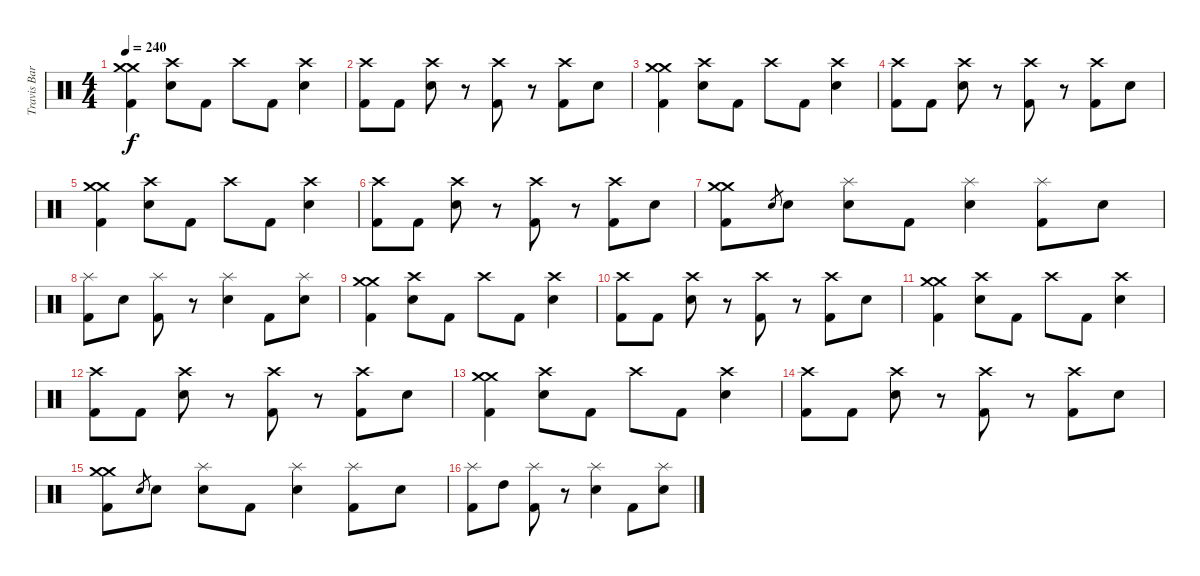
\track ("Travis Barker - Drums" "Travis Bar") {instrument percussion}
\staff {score}
\articulation defaults
\ts (4 4)
\tempo 240
\clef neutral
\ks c
("Crash medium (hit)" "Crash medium (hit)" "Kick (hit) 2").4{dy f} ("Crash high (hit)" "Electric Snare (hit)").8 "Kick (hit) 2".8 "Crash high (hit)".8 "Kick (hit) 2".8 ("Crash high (hit)" "Electric Snare (hit)").4 |
("Crash high (hit)" "Kick (hit) 2").8 "Kick (hit) 2".8 ("Crash high (hit)" "Electric Snare (hit)").8 r.8 ("Crash high (hit)" "Kick (hit) 2").8 r.8 ("Crash high (hit)" "Kick (hit) 2").8 "Electric Snare (hit)".8 |
("Crash medium (hit)" "Crash medium (hit)" "Kick (hit) 2").4 ("Crash high (hit)" "Electric Snare (hit)").8 "Kick (hit) 2".8 "Crash high (hit)".8 "Kick (hit) 2".8 ("Crash high (hit)" "Electric Snare (hit)").4 |
("Crash high (hit)" "Kick (hit) 2").8 "Kick (hit) 2".8 ("Crash high (hit)" "Electric Snare (hit)").8 r.8 ("Crash high (hit)" "Kick (hit) 2").8 r.8 ("Crash high (hit)" "Kick (hit) 2").8 "Electric Snare (hit)".8 |
("Crash medium (hit)" "Crash medium (hit)" "Kick (hit) 2").4 ("Crash high (hit)" "Electric Snare (hit)").8 "Kick (hit) 2".8 "Crash high (hit)".8 "Kick (hit) 2".8 ("Crash high (hit)" "Electric Snare (hit)").4 |
("Crash high (hit)" "Kick (hit) 2").8 "Kick (hit) 2".8 ("Crash high (hit)" "Electric Snare (hit)").8 r.8 ("Crash high (hit)" "Kick (hit) 2").8 r.8 ("Crash high (hit)" "Kick (hit) 2").8 "Electric Snare (hit)".8 |
("Crash medium (hit)" "Crash medium (hit)" "Kick (hit) 2").8 "Electric Snare (hit)".8{gr} "Electric Snare (hit)".8 ("Splash (hit)" "Electric Snare (hit)").8 "Kick (hit) 2".8 ("Splash (hit)" "Electric Snare (hit)").4 ("Splash (hit)" "Kick (hit) 2").8 "Electric Snare (hit)".8 |
("Splash (hit)" "Kick (hit) 2").8 "Electric Snare (hit)".8 ("Splash (hit)" "Kick (hit) 2").8 r.8 ("Splash (hit)" "Electric Snare (hit)").4 "Kick (hit) 2".8 ("Splash (hit)" "Electric Snare (hit)").8 |
("Crash medium (hit)" "Crash medium (hit)" "Kick (hit) 2").4 ("Crash high (hit)" "Electric Snare (hit)").8 "Kick (hit) 2".8 "Crash high (hit)".8 "Kick (hit) 2".8 ("Crash high (hit)" "Electric Snare (hit)").4 |
("Crash high (hit)" "Kick (hit) 2").8 "Kick (hit) 2".8 ("Crash high (hit)" "Electric Snare (hit)").8 r.8 ("Crash high (hit)" "Kick (hit) 2").8 r.8 ("Crash high (hit)" "Kick (hit) 2").8 "Electric Snare (hit)".8 |
("Crash medium (hit)" "Crash medium (hit)" "Kick (hit) 2").4 ("Crash high (hit)" "Electric Snare (hit)").8 "Kick (hit) 2".8 "Crash high (hit)".8 "Kick (hit) 2".8 ("Crash high (hit)" "Electric Snare (hit)").4 |
("Crash high (hit)" "Kick (hit) 2").8 "Kick (hit) 2".8 ("Crash high (hit)" "Electric Snare (hit)").8 r.8 ("Crash high (hit)" "Kick (hit) 2").8 r.8 ("Crash high (hit)" "Kick (hit) 2").8 "Electric Snare (hit)".8 |
("Crash medium (hit)" "Crash medium (hit)" "Kick (hit) 2").4 ("Crash high (hit)" "Electric Snare (hit)").8 "Kick (hit) 2".8 "Crash high (hit)".8 "Kick (hit) 2".8 ("Crash high (hit)" "Electric Snare (hit)").4 |
("Crash high (hit)" "Kick (hit) 2").8 "Kick (hit) 2".8 ("Crash high (hit)" "Electric Snare (hit)").8 r.8 ("Crash high (hit)" "Kick (hit) 2").8 r.8 ("Crash high (hit)" "Kick (hit) 2").8 "Electric Snare (hit)".8 |
("Crash medium (hit)" "Crash medium (hit)" "Kick (hit) 2").8 "Electric Snare (hit)".8{gr} "Electric Snare (hit)".8 ("Splash (hit)" "Electric Snare (hit)").8 "Kick (hit) 2".8 ("Splash (hit)" "Electric Snare (hit)").4 ("Splash (hit)" "Kick (hit) 2").8 "Electric Snare (hit)".8 |
("Splash (hit)" "Kick (hit) 2").8 "High Tom (hit)".8 ("Splash (hit)" "Kick (hit) 2").8 r.8 ("Splash (hit)" "Electric Snare (hit)").4 "Kick (hit) 2".8 ("Splash (hit)" "Electric Snare (hit)").8
